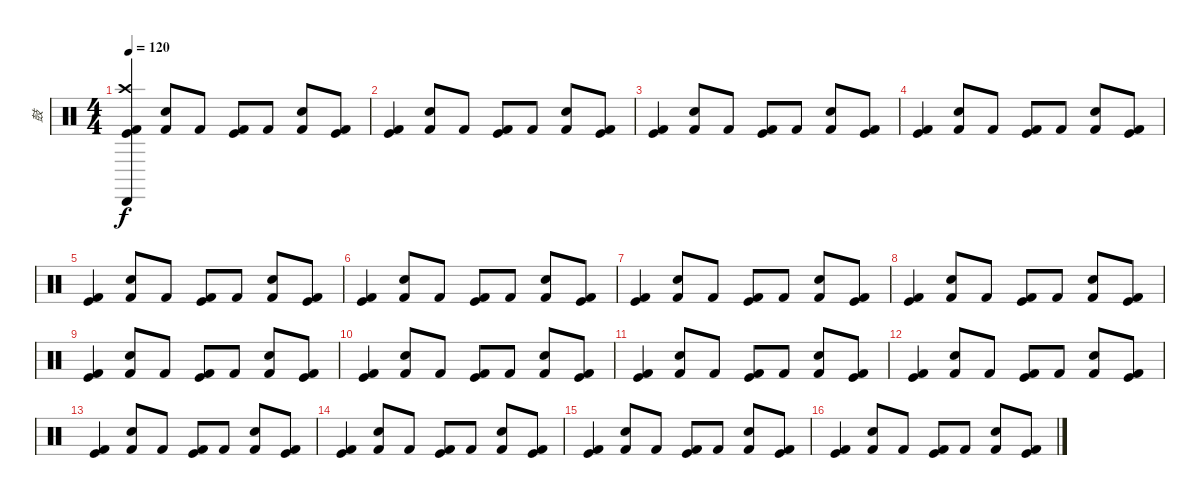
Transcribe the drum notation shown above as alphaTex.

\track ("鼓" "鼓") {instrument percussion}
\staff {score}
\articulation defaults
\ts (4 4)
\tempo 120
\clef neutral
\ks c
("Crash high (hit)" "Kick (hit) 2" "Kick (hit)" "Cabasa (hit)").4{dy f} ("Kick (hit) 2" "Electric Snare (hit)").8 "Kick (hit) 2".8 ("Kick (hit) 2" "Kick (hit)").8 "Kick (hit) 2".8 ("Kick (hit) 2" "Electric Snare (hit)").8 ("Kick (hit) 2" "Kick (hit)").8 |
("Kick (hit) 2" "Kick (hit)").4 ("Kick (hit) 2" "Electric Snare (hit)").8 "Kick (hit) 2".8 ("Kick (hit) 2" "Kick (hit)").8 "Kick (hit) 2".8 ("Kick (hit) 2" "Electric Snare (hit)").8 ("Kick (hit) 2" "Kick (hit)").8 |
("Kick (hit) 2" "Kick (hit)").4 ("Kick (hit) 2" "Electric Snare (hit)").8 "Kick (hit) 2".8 ("Kick (hit) 2" "Kick (hit)").8 "Kick (hit) 2".8 ("Kick (hit) 2" "Electric Snare (hit)").8 ("Kick (hit) 2" "Kick (hit)").8 |
("Kick (hit) 2" "Kick (hit)").4 ("Kick (hit) 2" "Electric Snare (hit)").8 "Kick (hit) 2".8 ("Kick (hit) 2" "Kick (hit)").8 "Kick (hit) 2".8 ("Kick (hit) 2" "Electric Snare (hit)").8 ("Kick (hit) 2" "Kick (hit)").8 |
("Kick (hit) 2" "Kick (hit)").4 ("Kick (hit) 2" "Electric Snare (hit)").8 "Kick (hit) 2".8 ("Kick (hit) 2" "Kick (hit)").8 "Kick (hit) 2".8 ("Kick (hit) 2" "Electric Snare (hit)").8 ("Kick (hit) 2" "Kick (hit)").8 |
("Kick (hit) 2" "Kick (hit)").4 ("Kick (hit) 2" "Electric Snare (hit)").8 "Kick (hit) 2".8 ("Kick (hit) 2" "Kick (hit)").8 "Kick (hit) 2".8 ("Kick (hit) 2" "Electric Snare (hit)").8 ("Kick (hit) 2" "Kick (hit)").8 |
("Kick (hit) 2" "Kick (hit)").4 ("Kick (hit) 2" "Electric Snare (hit)").8 "Kick (hit) 2".8 ("Kick (hit) 2" "Kick (hit)").8 "Kick (hit) 2".8 ("Kick (hit) 2" "Electric Snare (hit)").8 ("Kick (hit) 2" "Kick (hit)").8 |
("Kick (hit) 2" "Kick (hit)").4 ("Kick (hit) 2" "Electric Snare (hit)").8 "Kick (hit) 2".8 ("Kick (hit) 2" "Kick (hit)").8 "Kick (hit) 2".8 ("Kick (hit) 2" "Electric Snare (hit)").8 ("Kick (hit) 2" "Kick (hit)").8 |
("Kick (hit) 2" "Kick (hit)").4 ("Kick (hit) 2" "Electric Snare (hit)").8 "Kick (hit) 2".8 ("Kick (hit) 2" "Kick (hit)").8 "Kick (hit) 2".8 ("Kick (hit) 2" "Electric Snare (hit)").8 ("Kick (hit) 2" "Kick (hit)").8 |
("Kick (hit) 2" "Kick (hit)").4 ("Kick (hit) 2" "Electric Snare (hit)").8 "Kick (hit) 2".8 ("Kick (hit) 2" "Kick (hit)").8 "Kick (hit) 2".8 ("Kick (hit) 2" "Electric Snare (hit)").8 ("Kick (hit) 2" "Kick (hit)").8 |
("Kick (hit) 2" "Kick (hit)").4 ("Kick (hit) 2" "Electric Snare (hit)").8 "Kick (hit) 2".8 ("Kick (hit) 2" "Kick (hit)").8 "Kick (hit) 2".8 ("Kick (hit) 2" "Electric Snare (hit)").8 ("Kick (hit) 2" "Kick (hit)").8 |
("Kick (hit) 2" "Kick (hit)").4 ("Kick (hit) 2" "Electric Snare (hit)").8 "Kick (hit) 2".8 ("Kick (hit) 2" "Kick (hit)").8 "Kick (hit) 2".8 ("Kick (hit) 2" "Electric Snare (hit)").8 ("Kick (hit) 2" "Kick (hit)").8 |
("Kick (hit) 2" "Kick (hit)").4 ("Kick (hit) 2" "Electric Snare (hit)").8 "Kick (hit) 2".8 ("Kick (hit) 2" "Kick (hit)").8 "Kick (hit) 2".8 ("Kick (hit) 2" "Electric Snare (hit)").8 ("Kick (hit) 2" "Kick (hit)").8 |
("Kick (hit) 2" "Kick (hit)").4 ("Kick (hit) 2" "Electric Snare (hit)").8 "Kick (hit) 2".8 ("Kick (hit) 2" "Kick (hit)").8 "Kick (hit) 2".8 ("Kick (hit) 2" "Electric Snare (hit)").8 ("Kick (hit) 2" "Kick (hit)").8 |
("Kick (hit) 2" "Kick (hit)").4 ("Kick (hit) 2" "Electric Snare (hit)").8 "Kick (hit) 2".8 ("Kick (hit) 2" "Kick (hit)").8 "Kick (hit) 2".8 ("Kick (hit) 2" "Electric Snare (hit)").8 ("Kick (hit) 2" "Kick (hit)").8 |
("Kick (hit) 2" "Kick (hit)").4 ("Kick (hit) 2" "Electric Snare (hit)").8 "Kick (hit) 2".8 ("Kick (hit) 2" "Kick (hit)").8 "Kick (hit) 2".8 ("Kick (hit) 2" "Electric Snare (hit)").8 ("Kick (hit) 2" "Kick (hit)").8
